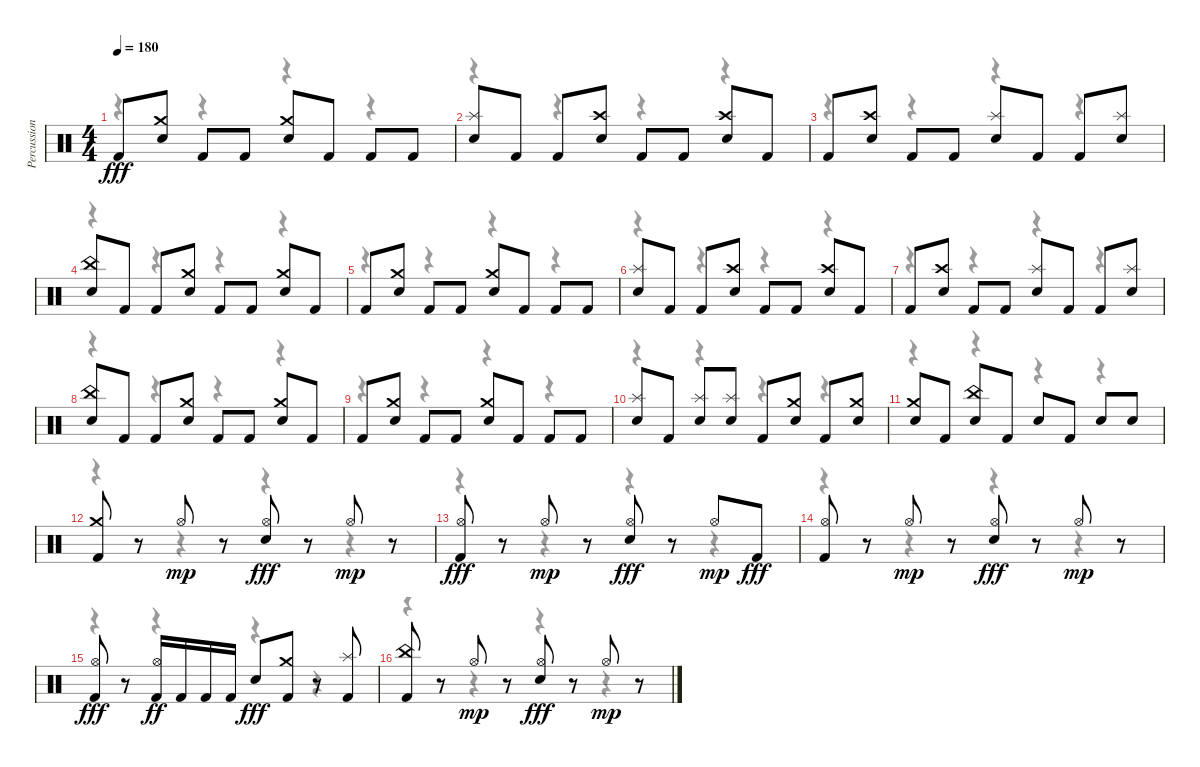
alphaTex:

\track ("Percussion" "Percussion") {instrument percussion}
\staff {score}
\articulation defaults
\voice
\ts (4 4)
\tempo 180
\clef neutral
\ks c "Kick (hit) 2".8{dy fff}
("Snare (hit) 2" "Crash medium (hit)").8 "Kick (hit) 2".8 "Kick (hit) 2".8 ("Snare (hit) 2" "Crash medium (hit)").8 "Kick (hit) 2".8 "Kick (hit) 2".8 "Kick (hit) 2".8 |
("Snare (hit) 2" "Splash (hit)").8 "Kick (hit) 2".8 "Kick (hit) 2".8 ("Snare (hit) 2" "Crash high (hit)").8 "Kick (hit) 2".8 "Kick (hit) 2".8 ("Snare (hit) 2" "Crash high (hit)").8 "Kick (hit) 2".8 |
"Kick (hit) 2".8 ("Snare (hit) 2" "Crash high (hit)").8 "Kick (hit) 2".8 "Kick (hit) 2".8 ("Snare (hit) 2" "Splash (hit)").8 "Kick (hit) 2".8 "Kick (hit) 2".8 ("Snare (hit) 2" "Splash (hit)").8 |
("Snare (hit) 2" "China (hit)").8 "Kick (hit) 2".8 "Kick (hit) 2".8 ("Snare (hit) 2" "Crash medium (hit)").8 "Kick (hit) 2".8 "Kick (hit) 2".8 ("Snare (hit) 2" "Crash medium (hit)").8 "Kick (hit) 2".8 |
"Kick (hit) 2".8 ("Snare (hit) 2" "Crash medium (hit)").8 "Kick (hit) 2".8 "Kick (hit) 2".8 ("Snare (hit) 2" "Crash medium (hit)").8 "Kick (hit) 2".8 "Kick (hit) 2".8 "Kick (hit) 2".8 |
("Snare (hit) 2" "Splash (hit)").8 "Kick (hit) 2".8 "Kick (hit) 2".8 ("Snare (hit) 2" "Crash high (hit)").8 "Kick (hit) 2".8 "Kick (hit) 2".8 ("Snare (hit) 2" "Crash high (hit)").8 "Kick (hit) 2".8 |
"Kick (hit) 2".8 ("Snare (hit) 2" "Crash high (hit)").8 "Kick (hit) 2".8 "Kick (hit) 2".8 ("Snare (hit) 2" "Splash (hit)").8 "Kick (hit) 2".8 "Kick (hit) 2".8 ("Snare (hit) 2" "Splash (hit)").8 |
("Snare (hit) 2" "China (hit)").8 "Kick (hit) 2".8 "Kick (hit) 2".8 ("Snare (hit) 2" "Crash medium (hit)").8 "Kick (hit) 2".8 "Kick (hit) 2".8 ("Snare (hit) 2" "Crash medium (hit)").8 "Kick (hit) 2".8 |
"Kick (hit) 2".8 ("Snare (hit) 2" "Crash medium (hit)").8 "Kick (hit) 2".8 "Kick (hit) 2".8 ("Snare (hit) 2" "Crash medium (hit)").8 "Kick (hit) 2".8 "Kick (hit) 2".8 "Kick (hit) 2".8 |
("Snare (hit) 2" "Splash (hit)").8 "Kick (hit) 2".8 ("Snare (hit) 2" "Splash (hit)").8 ("Snare (hit) 2" "Splash (hit)").8 "Kick (hit) 2".8 ("Snare (hit) 2" "Crash medium (hit)").8 "Kick (hit) 2".8 ("Snare (hit) 2" "Crash medium (hit)").8 |
("Snare (hit) 2" "Crash medium (hit)").8 "Kick (hit) 2".8 ("Snare (hit) 2" "China (hit)").8 "Kick (hit) 2".8 "Snare (hit) 2".8 "Kick (hit) 2".8 "Snare (hit) 2".8 "Snare (hit) 2".8 |
("Kick (hit) 2" "Crash medium (hit)").8 r.8 "Hi-Hat (open)".8{dy mp} r.8 ("Hi-Hat (open)" "Snare (hit) 2").8{dy fff} r.8 "Hi-Hat (open)".8{dy mp} r.8 |
("Hi-Hat (open)" "Kick (hit) 2").8{dy fff} r.8 "Hi-Hat (open)".8{dy mp} r.8 ("Hi-Hat (open)" "Snare (hit) 2").8{dy fff} r.8 "Hi-Hat (open)".8{dy mp} "Kick (hit) 2".8{dy fff} |
("Hi-Hat (open)" "Kick (hit) 2").8 r.8 "Hi-Hat (open)".8{dy mp} r.8 ("Hi-Hat (open)" "Snare (hit) 2").8{dy fff} r.8 "Hi-Hat (open)".8{dy mp} r.8 |
("Hi-Hat (open)" "Kick (hit) 2").8{dy fff} r.8 ("Kick (hit) 2" "Hi-Hat (open)").16{dy ff} "Kick (hit) 2".16 "Kick (hit) 2".16 "Kick (hit) 2".16 "Snare (hit) 2".8{dy fff} ("Kick (hit) 2" "Crash medium (hit)").8 r.8 ("Kick (hit) 2" "Splash (hit)").8 |
("Kick (hit) 2" "China (hit)").8 r.8 "Hi-Hat (open)".8{dy mp} r.8 ("Hi-Hat (open)" "Snare (hit) 2").8{dy fff} r.8 "Hi-Hat (open)".8{dy mp} r.8
\voice
\clef neutral
\ottava regular
\simile none
\ks c
r.4{dy f} r.4 r.4 r.4 |
r.4 r.4 r.4 r.4 |
r.4 r.4 r.4 r.4 |
r.4 r.4 r.4 r.4 |
r.4 r.4 r.4 r.4 |
r.4 r.4 r.4 r.4 |
r.4 r.4 r.4 r.4 |
r.4 r.4 r.4 r.4 |
r.4 r.4 r.4 r.4 |
r.4 r.4 r.4 r.4 |
r.4 r.4 r.4 r.4 |
r.4 r.4 r.4 r.4 |
r.4 r.4 r.4 r.4 |
r.4 r.4 r.4 r.4 |
r.4 r.4 r.4 r.4 |
r.4 r.4 r.4 r.4
